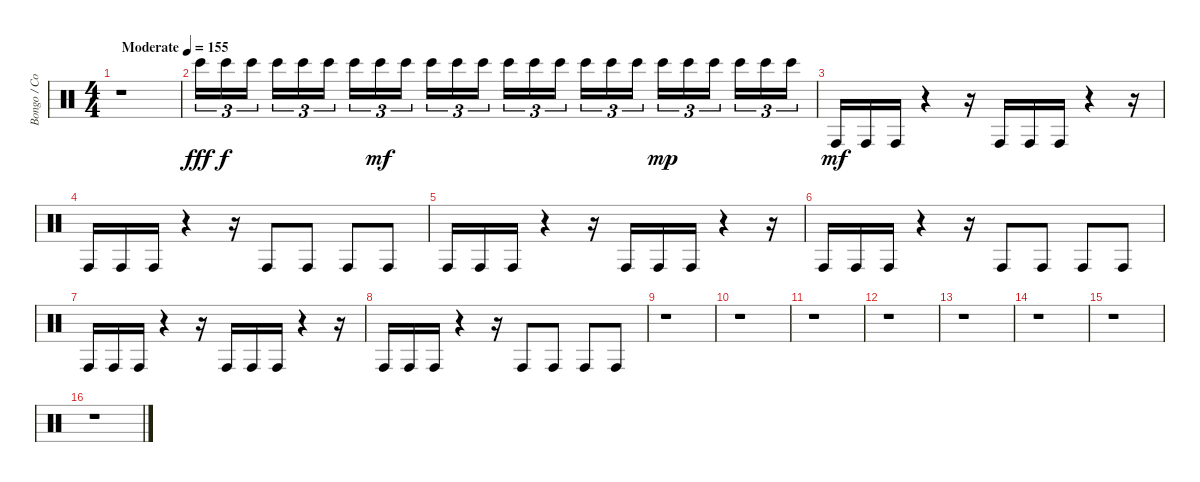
\track ("Bongo / Conga" "Bongo / Co") {instrument percussion}
\staff {score}
\articulation defaults
\ts (4 4)
\tempo (155 "Moderate")
\clef neutral
\ks c
r.1{dy fff} |
"Bongo High (hit)".16{tu (3 2)} "Bongo High (hit)".16{tu (3 2) dy f} "Bongo High (hit)".16{tu (3 2) beam splitsecondary} "Bongo High (hit)".16{tu (3 2)} "Bongo High (hit)".16{tu (3 2)} "Bongo High (hit)".16{tu (3 2)} "Bongo High (hit)".16{tu (3 2)} "Bongo High (hit)".16{tu (3 2) dy mf} "Bongo High (hit)".16{tu (3 2) beam splitsecondary} "Bongo High (hit)".16{tu (3 2)} "Bongo High (hit)".16{tu (3 2)} "Bongo High (hit)".16{tu (3 2)} "Bongo High (hit)".16{tu (3 2)} "Bongo High (hit)".16{tu (3 2)} "Bongo High (hit)".16{tu (3 2) beam splitsecondary} "Bongo High (hit)".16{tu (3 2)} "Bongo High (hit)".16{tu (3 2)} "Bongo High (hit)".16{tu (3 2)} "Bongo High (hit)".16{tu (3 2) dy mp} "Bongo High (hit)".16{tu (3 2)} "Bongo High (hit)".16{tu (3 2) beam splitsecondary} "Bongo High (hit)".16{tu (3 2)} "Bongo High (hit)".16{tu (3 2)} "Bongo High (hit)".16{tu (3 2)} |
"Conga high (hit)".16{dy mf} "Conga high (hit)".16 "Conga high (hit)".16 r.4 r.16 "Conga high (hit)".16 "Conga high (hit)".16 "Conga high (hit)".16 r.4 r.16 |
"Conga high (hit)".16 "Conga high (hit)".16 "Conga high (hit)".16 r.4 r.16 "Conga high (hit)".8 "Conga high (hit)".8 "Conga high (hit)".8 "Conga high (hit)".8 |
"Conga high (hit)".16 "Conga high (hit)".16 "Conga high (hit)".16 r.4 r.16 "Conga high (hit)".16 "Conga high (hit)".16 "Conga high (hit)".16 r.4 r.16 |
"Conga high (hit)".16 "Conga high (hit)".16 "Conga high (hit)".16 r.4 r.16 "Conga high (hit)".8 "Conga high (hit)".8 "Conga high (hit)".8 "Conga high (hit)".8 |
"Conga high (hit)".16 "Conga high (hit)".16 "Conga high (hit)".16 r.4 r.16 "Conga high (hit)".16 "Conga high (hit)".16 "Conga high (hit)".16 r.4 r.16 |
"Conga high (hit)".16 "Conga high (hit)".16 "Conga high (hit)".16 r.4 r.16 "Conga high (hit)".8 "Conga high (hit)".8 "Conga high (hit)".8 "Conga high (hit)".8 |
r.1 |
r.1 |
r.1 |
r.1 |
r.1 |
r.1 |
r.1 |
r.1
